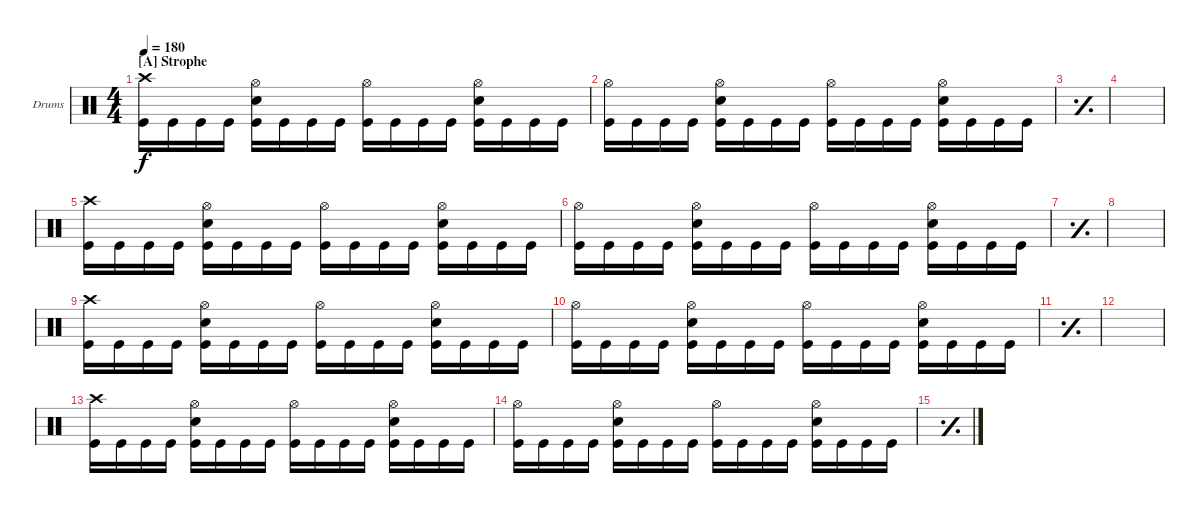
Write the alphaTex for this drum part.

\defaultSystemsLayout 4
\bracketExtendMode groupsimilarinstruments
\firstSystemTrackNameOrientation horizontal
\otherSystemsTrackNameOrientation horizontal
\track ("Drumkit" "Drums") {instrument percussion}
\staff {score}
\articulation defaults
\ts (4 4)
\section ("A" "Strophe")
\tempo 180
\clef neutral
\ks c
("Kick (hit)" "Crash high (hit)").16{dy f} "Kick (hit)".16 "Kick (hit)".16 "Kick (hit)".16 ("Kick (hit)" "Snare (hit) 2" "Hi-Hat (open)").16 "Kick (hit)".16 "Kick (hit)".16 "Kick (hit)".16 ("Kick (hit)" "Hi-Hat (open)").16 "Kick (hit)".16 "Kick (hit)".16 "Kick (hit)".16 ("Kick (hit)" "Snare (hit) 2" "Hi-Hat (open)").16 "Kick (hit)".16 "Kick (hit)".16 "Kick (hit)".16 |
("Kick (hit)" "Hi-Hat (open)").16 "Kick (hit)".16 "Kick (hit)".16 "Kick (hit)".16 ("Kick (hit)" "Snare (hit) 2" "Hi-Hat (open)").16 "Kick (hit)".16 "Kick (hit)".16 "Kick (hit)".16 ("Kick (hit)" "Hi-Hat (open)").16 "Kick (hit)".16 "Kick (hit)".16 "Kick (hit)".16 ("Kick (hit)" "Snare (hit) 2" "Hi-Hat (open)").16 "Kick (hit)".16 "Kick (hit)".16 "Kick (hit)".16 |
\simile simple
|
|
\simile none
("Kick (hit)" "Crash high (hit)").16 "Kick (hit)".16 "Kick (hit)".16 "Kick (hit)".16 ("Kick (hit)" "Snare (hit) 2" "Hi-Hat (open)").16 "Kick (hit)".16 "Kick (hit)".16 "Kick (hit)".16 ("Kick (hit)" "Hi-Hat (open)").16 "Kick (hit)".16 "Kick (hit)".16 "Kick (hit)".16 ("Kick (hit)" "Snare (hit) 2" "Hi-Hat (open)").16 "Kick (hit)".16 "Kick (hit)".16 "Kick (hit)".16 |
("Kick (hit)" "Hi-Hat (open)").16 "Kick (hit)".16 "Kick (hit)".16 "Kick (hit)".16 ("Kick (hit)" "Snare (hit) 2" "Hi-Hat (open)").16 "Kick (hit)".16 "Kick (hit)".16 "Kick (hit)".16 ("Kick (hit)" "Hi-Hat (open)").16 "Kick (hit)".16 "Kick (hit)".16 "Kick (hit)".16 ("Kick (hit)" "Snare (hit) 2" "Hi-Hat (open)").16 "Kick (hit)".16 "Kick (hit)".16 "Kick (hit)".16 |
\simile simple
|
|
\simile none
("Kick (hit)" "Crash high (hit)").16 "Kick (hit)".16 "Kick (hit)".16 "Kick (hit)".16 ("Kick (hit)" "Snare (hit) 2" "Hi-Hat (open)").16 "Kick (hit)".16 "Kick (hit)".16 "Kick (hit)".16 ("Kick (hit)" "Hi-Hat (open)").16 "Kick (hit)".16 "Kick (hit)".16 "Kick (hit)".16 ("Kick (hit)" "Snare (hit) 2" "Hi-Hat (open)").16 "Kick (hit)".16 "Kick (hit)".16 "Kick (hit)".16 |
("Kick (hit)" "Hi-Hat (open)").16 "Kick (hit)".16 "Kick (hit)".16 "Kick (hit)".16 ("Kick (hit)" "Snare (hit) 2" "Hi-Hat (open)").16 "Kick (hit)".16 "Kick (hit)".16 "Kick (hit)".16 ("Kick (hit)" "Hi-Hat (open)").16 "Kick (hit)".16 "Kick (hit)".16 "Kick (hit)".16 ("Kick (hit)" "Snare (hit) 2" "Hi-Hat (open)").16 "Kick (hit)".16 "Kick (hit)".16 "Kick (hit)".16 |
\simile simple
|
|
\simile none
("Kick (hit)" "Crash high (hit)").16 "Kick (hit)".16 "Kick (hit)".16 "Kick (hit)".16 ("Kick (hit)" "Snare (hit) 2" "Hi-Hat (open)").16 "Kick (hit)".16 "Kick (hit)".16 "Kick (hit)".16 ("Kick (hit)" "Hi-Hat (open)").16 "Kick (hit)".16 "Kick (hit)".16 "Kick (hit)".16 ("Kick (hit)" "Snare (hit) 2" "Hi-Hat (open)").16 "Kick (hit)".16 "Kick (hit)".16 "Kick (hit)".16 |
("Kick (hit)" "Hi-Hat (open)").16 "Kick (hit)".16 "Kick (hit)".16 "Kick (hit)".16 ("Kick (hit)" "Snare (hit) 2" "Hi-Hat (open)").16 "Kick (hit)".16 "Kick (hit)".16 "Kick (hit)".16 ("Kick (hit)" "Hi-Hat (open)").16 "Kick (hit)".16 "Kick (hit)".16 "Kick (hit)".16 ("Kick (hit)" "Snare (hit) 2" "Hi-Hat (open)").16 "Kick (hit)".16 "Kick (hit)".16 "Kick (hit)".16 |
\simile simple
